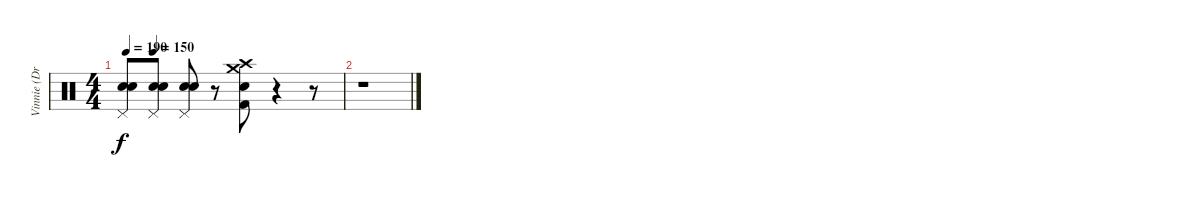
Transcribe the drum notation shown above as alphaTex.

\track ("Vinnie (Drums)" "Vinnie (Dr") {instrument percussion}
\staff {score}
\articulation defaults
\ts (4 4)
\tempo 190
\tempo (150 0.125)
\clef neutral
\ks c
("Pedal Hi-Hat (hit)" "Electric Snare (hit)" "Snare (hit) 2").8{dy f} ("Pedal Hi-Hat (hit)" "Electric Snare (hit)" "Snare (hit) 2").8 ("Pedal Hi-Hat (hit)" "Electric Snare (hit)" "Snare (hit) 2").8 r.8 ("Kick (hit) 2" "Crash high (hit)" "Snare (hit) 2" "Crash medium (hit)").8 r.4 r.8 |
r.1
